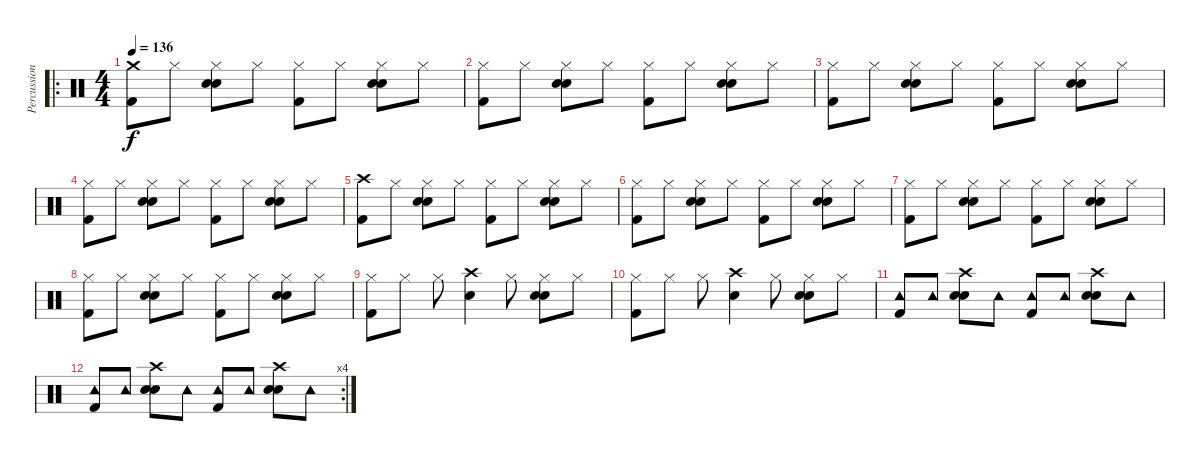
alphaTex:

\track ("Percussion" "Percussion") {instrument percussion}
\staff {score}
\articulation defaults
\ro
\ts (4 4)
\tempo 136
\clef neutral
\ks c
("Crash medium (hit)" "Kick (hit) 2").8{dy f} "Hi-Hat (closed)".8 ("Hi-Hat (closed)" "Snare (hit) 2" "Hand Clap (hit)").8 "Hi-Hat (closed)".8 ("Hi-Hat (closed)" "Kick (hit) 2").8 "Hi-Hat (closed)".8 ("Hi-Hat (closed)" "Snare (hit) 2" "Hand Clap (hit)").8 "Hi-Hat (closed)".8 |
("Hi-Hat (closed)" "Kick (hit) 2").8 "Hi-Hat (closed)".8 ("Hi-Hat (closed)" "Snare (hit) 2" "Hand Clap (hit)").8 "Hi-Hat (closed)".8 ("Hi-Hat (closed)" "Kick (hit) 2").8 "Hi-Hat (closed)".8 ("Hi-Hat (closed)" "Snare (hit) 2" "Hand Clap (hit)").8 "Hi-Hat (closed)".8 |
("Hi-Hat (closed)" "Kick (hit) 2").8 "Hi-Hat (closed)".8 ("Hi-Hat (closed)" "Snare (hit) 2" "Hand Clap (hit)").8 "Hi-Hat (closed)".8 ("Hi-Hat (closed)" "Kick (hit) 2").8 "Hi-Hat (closed)".8 ("Hi-Hat (closed)" "Snare (hit) 2" "Hand Clap (hit)").8 "Hi-Hat (closed)".8 |
("Hi-Hat (closed)" "Kick (hit) 2").8 "Hi-Hat (closed)".8 ("Hi-Hat (closed)" "Snare (hit) 2" "Hand Clap (hit)").8 "Hi-Hat (closed)".8 ("Hi-Hat (closed)" "Kick (hit) 2").8 "Hi-Hat (closed)".8 ("Hi-Hat (closed)" "Snare (hit) 2" "Hand Clap (hit)").8 "Hi-Hat (closed)".8 |
("Crash high (hit)" "Kick (hit) 2").8 "Hi-Hat (closed)".8 ("Hi-Hat (closed)" "Snare (hit) 2" "Hand Clap (hit)").8 "Hi-Hat (closed)".8 ("Hi-Hat (closed)" "Kick (hit) 2").8 "Hi-Hat (closed)".8 ("Hi-Hat (closed)" "Snare (hit) 2" "Hand Clap (hit)").8 "Hi-Hat (closed)".8 |
("Hi-Hat (closed)" "Kick (hit) 2").8 "Hi-Hat (closed)".8 ("Hi-Hat (closed)" "Snare (hit) 2" "Hand Clap (hit)").8 "Hi-Hat (closed)".8 ("Hi-Hat (closed)" "Kick (hit) 2").8 "Hi-Hat (closed)".8 ("Hi-Hat (closed)" "Snare (hit) 2" "Hand Clap (hit)").8 "Hi-Hat (closed)".8 |
("Hi-Hat (closed)" "Kick (hit) 2").8 "Hi-Hat (closed)".8 ("Hi-Hat (closed)" "Snare (hit) 2" "Hand Clap (hit)").8 "Hi-Hat (closed)".8 ("Hi-Hat (closed)" "Kick (hit) 2").8 "Hi-Hat (closed)".8 ("Hi-Hat (closed)" "Snare (hit) 2" "Hand Clap (hit)").8 "Hi-Hat (closed)".8 |
("Hi-Hat (closed)" "Kick (hit) 2").8 "Hi-Hat (closed)".8 ("Hi-Hat (closed)" "Snare (hit) 2" "Hand Clap (hit)").8 "Hi-Hat (closed)".8 ("Hi-Hat (closed)" "Kick (hit) 2").8 "Hi-Hat (closed)".8 ("Hi-Hat (closed)" "Snare (hit) 2" "Hand Clap (hit)").8 "Hi-Hat (closed)".8 |
("Hi-Hat (closed)" "Kick (hit) 2").8 "Hi-Hat (closed)".8 "Hi-Hat (closed)".8 ("Crash high (hit)" "Snare (hit) 2").4 "Hi-Hat (closed)".8 ("Hi-Hat (closed)" "Snare (hit) 2" "Hand Clap (hit)").8 "Hi-Hat (closed)".8 |
("Hi-Hat (closed)" "Kick (hit) 2").8 "Hi-Hat (closed)".8 "Hi-Hat (closed)".8 ("Crash high (hit)" "Snare (hit) 2").4 "Hi-Hat (closed)".8 ("Hi-Hat (closed)" "Snare (hit) 2" "Hand Clap (hit)").8 "Hi-Hat (closed)".8 |
("Tambourine (hit)" "Kick (hit) 2").8 "Tambourine (hit)".8 ("Crash high (hit)" "Snare (hit) 2" "Hand Clap (hit)").8 "Tambourine (hit)".8 ("Tambourine (hit)" "Kick (hit) 2").8 "Tambourine (hit)".8 ("Crash high (hit)" "Snare (hit) 2" "Hand Clap (hit)").8 "Tambourine (hit)".8 |
\rc 4
("Tambourine (hit)" "Kick (hit) 2").8 "Tambourine (hit)".8 ("Crash high (hit)" "Snare (hit) 2" "Hand Clap (hit)").8 "Tambourine (hit)".8 ("Tambourine (hit)" "Kick (hit) 2").8 "Tambourine (hit)".8 ("Crash high (hit)" "Snare (hit) 2" "Hand Clap (hit)").8 "Tambourine (hit)".8
